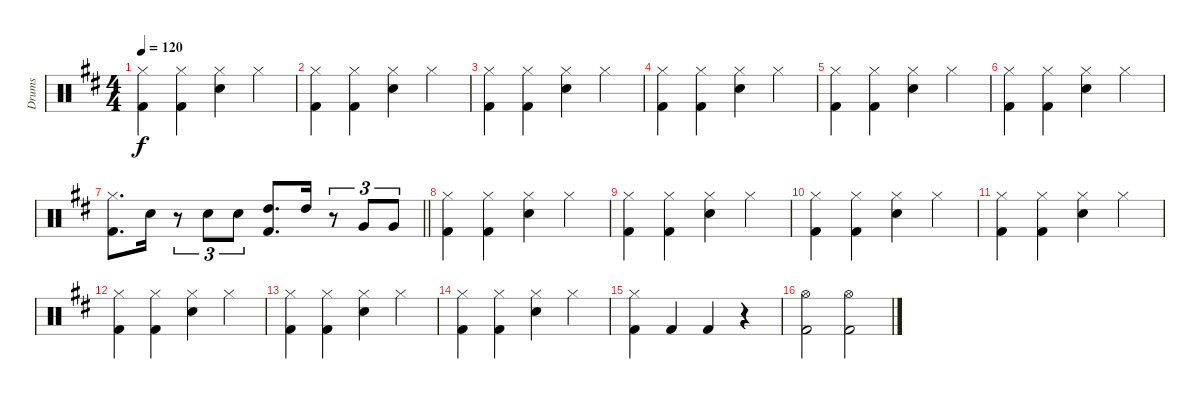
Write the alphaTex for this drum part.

\track ("Drums" "Drums") {instrument percussion}
\staff {score}
\articulation defaults
\ts (4 4)
\tempo 120
\clef neutral
\ks d
("Hi-Hat (closed)" "Kick (hit) 2").4{dy f} ("Hi-Hat (closed)" "Kick (hit) 2").4 ("Hi-Hat (closed)" "Snare (hit) 2").4 "Hi-Hat (closed)".4 |
("Hi-Hat (closed)" "Kick (hit) 2").4 ("Hi-Hat (closed)" "Kick (hit) 2").4 ("Hi-Hat (closed)" "Snare (hit) 2").4 "Hi-Hat (closed)".4 |
("Hi-Hat (closed)" "Kick (hit) 2").4 ("Hi-Hat (closed)" "Kick (hit) 2").4 ("Hi-Hat (closed)" "Snare (hit) 2").4 "Hi-Hat (closed)".4 |
("Hi-Hat (closed)" "Kick (hit) 2").4 ("Hi-Hat (closed)" "Kick (hit) 2").4 ("Hi-Hat (closed)" "Snare (hit) 2").4 "Hi-Hat (closed)".4 |
("Hi-Hat (closed)" "Kick (hit) 2").4 ("Hi-Hat (closed)" "Kick (hit) 2").4 ("Hi-Hat (closed)" "Snare (hit) 2").4 "Hi-Hat (closed)".4 |
("Hi-Hat (closed)" "Kick (hit) 2").4 ("Hi-Hat (closed)" "Kick (hit) 2").4 ("Hi-Hat (closed)" "Snare (hit) 2").4 "Hi-Hat (closed)".4 |
\barLineRight lightlight
("Hi-Hat (closed)" "Kick (hit) 2").8{d} "Snare (hit) 2".16 r.8{tu (3 2)} "Snare (hit) 2".8{tu (3 2)} "Snare (hit) 2".8{tu (3 2)} ("Kick (hit) 2" "High Tom (hit)").8{d} "High Tom (hit)".16 r.8{tu (3 2)} "Very Low Tom (hit)".8{tu (3 2)} "Very Low Tom (hit)".8{tu (3 2)} |
("Hi-Hat (closed)" "Kick (hit) 2").4 ("Hi-Hat (closed)" "Kick (hit) 2").4 ("Hi-Hat (closed)" "Snare (hit) 2").4 "Hi-Hat (closed)".4 |
("Hi-Hat (closed)" "Kick (hit) 2").4 ("Hi-Hat (closed)" "Kick (hit) 2").4 ("Hi-Hat (closed)" "Snare (hit) 2").4 "Hi-Hat (closed)".4 |
("Hi-Hat (closed)" "Kick (hit) 2").4 ("Hi-Hat (closed)" "Kick (hit) 2").4 ("Hi-Hat (closed)" "Snare (hit) 2").4 "Hi-Hat (closed)".4 |
("Hi-Hat (closed)" "Kick (hit) 2").4 ("Hi-Hat (closed)" "Kick (hit) 2").4 ("Hi-Hat (closed)" "Snare (hit) 2").4 "Hi-Hat (closed)".4 |
("Hi-Hat (closed)" "Kick (hit) 2").4 ("Hi-Hat (closed)" "Kick (hit) 2").4 ("Hi-Hat (closed)" "Snare (hit) 2").4 "Hi-Hat (closed)".4 |
("Hi-Hat (closed)" "Kick (hit) 2").4 ("Hi-Hat (closed)" "Kick (hit) 2").4 ("Hi-Hat (closed)" "Snare (hit) 2").4 "Hi-Hat (closed)".4 |
("Hi-Hat (closed)" "Kick (hit) 2").4 ("Hi-Hat (closed)" "Kick (hit) 2").4 ("Hi-Hat (closed)" "Snare (hit) 2").4 "Hi-Hat (closed)".4 |
("Hi-Hat (closed)" "Kick (hit) 2").4 "Kick (hit) 2".4 "Kick (hit) 2".4 r.4 |
("Hi-Hat (open)" "Kick (hit) 2").2 ("Hi-Hat (open)" "Kick (hit) 2").2
